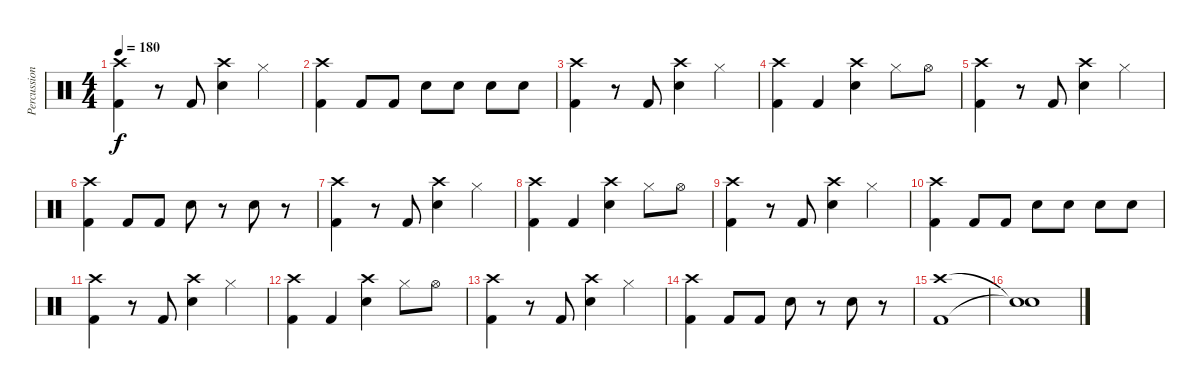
\track ("Percussion" "Percussion") {instrument percussion}
\staff {score}
\articulation defaults
\ts (4 4)
\tempo 180
\clef neutral
\ks c
("Crash high (hit)" "Kick (hit) 2").4{dy f} r.8 "Kick (hit) 2".8 ("Crash high (hit)" "Electric Snare (hit)").4 "Hi-Hat (closed)".4 |
("Crash high (hit)" "Kick (hit) 2").4 "Kick (hit) 2".8 "Kick (hit) 2".8 "Electric Snare (hit)".8 "Electric Snare (hit)".8 "Electric Snare (hit)".8 "Electric Snare (hit)".8 |
("Crash high (hit)" "Kick (hit) 2").4 r.8 "Kick (hit) 2".8 ("Crash high (hit)" "Electric Snare (hit)").4 "Hi-Hat (closed)".4 |
("Crash high (hit)" "Kick (hit) 2").4 "Kick (hit) 2".4 ("Crash high (hit)" "Electric Snare (hit)").4 "Hi-Hat (closed)".8 "Hi-Hat (open)".8 |
("Crash high (hit)" "Kick (hit) 2").4 r.8 "Kick (hit) 2".8 ("Crash high (hit)" "Electric Snare (hit)").4 "Hi-Hat (closed)".4 |
("Crash high (hit)" "Kick (hit) 2").4 "Kick (hit) 2".8 "Kick (hit) 2".8 "Electric Snare (hit)".8 r.8 "Electric Snare (hit)".8 r.8 |
("Crash high (hit)" "Kick (hit) 2").4 r.8 "Kick (hit) 2".8 ("Crash high (hit)" "Electric Snare (hit)").4 "Hi-Hat (closed)".4 |
("Crash high (hit)" "Kick (hit) 2").4 "Kick (hit) 2".4 ("Crash high (hit)" "Electric Snare (hit)").4 "Hi-Hat (closed)".8 "Hi-Hat (open)".8 |
("Crash high (hit)" "Kick (hit) 2").4 r.8 "Kick (hit) 2".8 ("Crash high (hit)" "Electric Snare (hit)").4 "Hi-Hat (closed)".4 |
("Crash high (hit)" "Kick (hit) 2").4 "Kick (hit) 2".8 "Kick (hit) 2".8 "Electric Snare (hit)".8 "Electric Snare (hit)".8 "Electric Snare (hit)".8 "Electric Snare (hit)".8 |
("Crash high (hit)" "Kick (hit) 2").4 r.8 "Kick (hit) 2".8 ("Crash high (hit)" "Electric Snare (hit)").4 "Hi-Hat (closed)".4 |
("Crash high (hit)" "Kick (hit) 2").4 "Kick (hit) 2".4 ("Crash high (hit)" "Electric Snare (hit)").4 "Hi-Hat (closed)".8 "Hi-Hat (open)".8 |
("Crash high (hit)" "Kick (hit) 2").4 r.8 "Kick (hit) 2".8 ("Crash high (hit)" "Electric Snare (hit)").4 "Hi-Hat (closed)".4 |
("Crash high (hit)" "Kick (hit) 2").4 "Kick (hit) 2".8 "Kick (hit) 2".8 "Electric Snare (hit)".8 r.8 "Electric Snare (hit)".8 r.8 |
("Crash high (hit)" "Kick (hit) 2").1 |
("Snare (hit)"{t} "Snare (hit)"{t}).1
